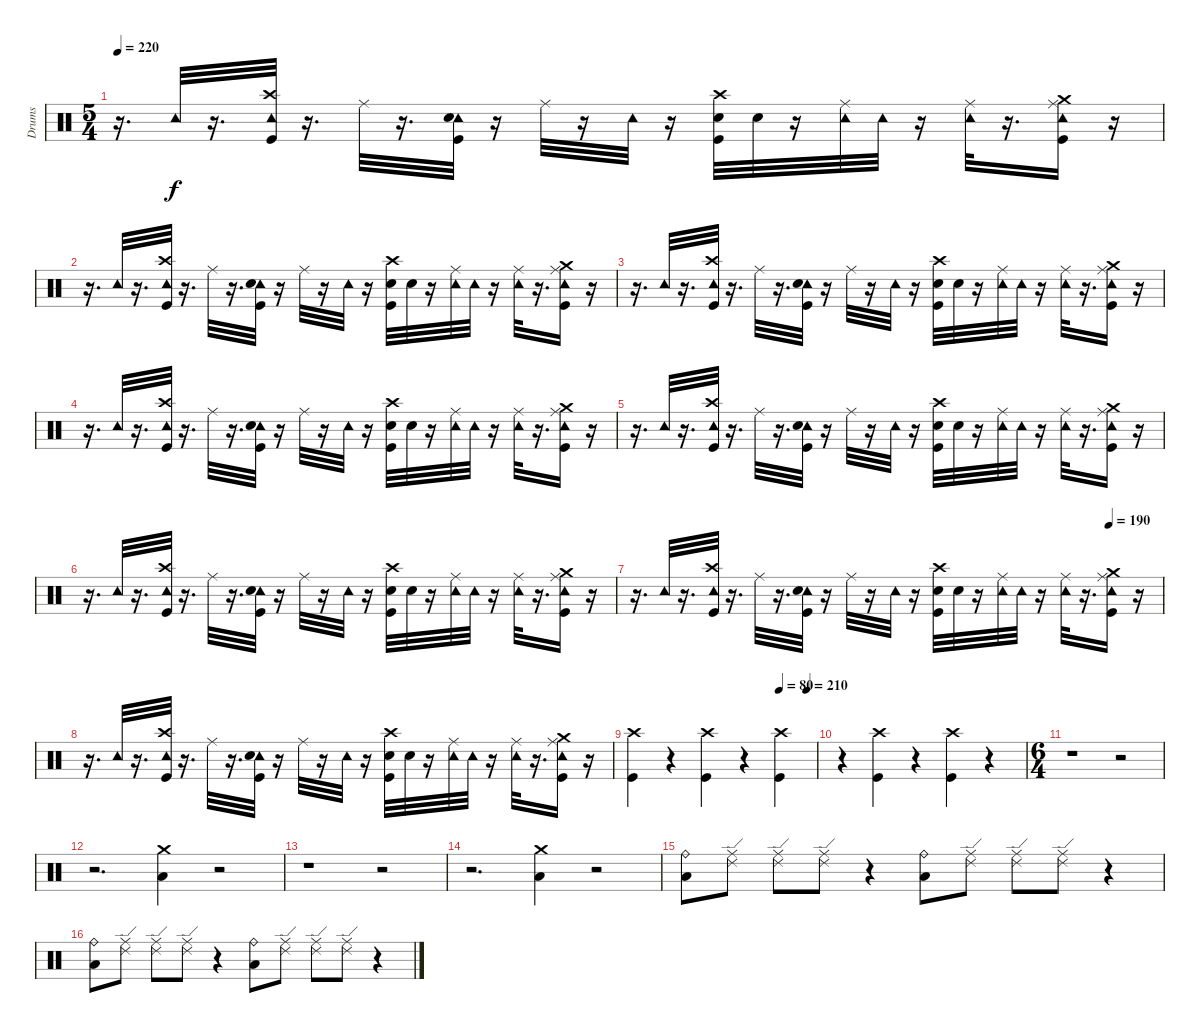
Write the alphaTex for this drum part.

\track ("Drums" "Drums") {instrument percussion}
\staff {score}
\articulation defaults
\ts (5 4)
\tempo 220
\clef neutral
\ks c
r.16{d dy f} "Tambourine (hit)".32 r.16{d} ("Tambourine (hit)" "Crash high (hit)" "Kick (hit)").32 r.16{d} "Ride (middle)".32 r.16{d} ("Tambourine (hit)" "Snare (hit) 2" "Kick (hit)").32 r.16 "Ride (middle)".32 r.16 "Tambourine (hit)".32 r.16 ("Crash high (hit)" "Kick (hit)" "Snare (hit) 2").32 "Snare (hit)".32 r.16 ("Tambourine (hit)" "Ride (middle)").32 "Tambourine (hit)".32 r.16 ("Ride (middle)" "Tambourine (hit)").32 r.16{d} ("Crash medium (hit)" "Tambourine (hit)" "Ride (middle)" "Kick (hit)").16 r.16 |
r.16{d} "Tambourine (hit)".32 r.16{d} ("Tambourine (hit)" "Crash high (hit)" "Kick (hit)").32 r.16{d} "Ride (middle)".32 r.16{d} ("Tambourine (hit)" "Snare (hit) 2" "Kick (hit)").32 r.16 "Ride (middle)".32 r.16 "Tambourine (hit)".32 r.16 ("Crash high (hit)" "Kick (hit)" "Snare (hit) 2").32 "Snare (hit)".32 r.16 ("Tambourine (hit)" "Ride (middle)").32 "Tambourine (hit)".32 r.16 ("Ride (middle)" "Tambourine (hit)").32 r.16{d} ("Crash medium (hit)" "Tambourine (hit)" "Ride (middle)" "Kick (hit)").16 r.16 |
r.16{d} "Tambourine (hit)".32 r.16{d} ("Tambourine (hit)" "Crash high (hit)" "Kick (hit)").32 r.16{d} "Ride (middle)".32 r.16{d} ("Tambourine (hit)" "Snare (hit) 2" "Kick (hit)").32 r.16 "Ride (middle)".32 r.16 "Tambourine (hit)".32 r.16 ("Crash high (hit)" "Kick (hit)" "Snare (hit) 2").32 "Snare (hit)".32 r.16 ("Tambourine (hit)" "Ride (middle)").32 "Tambourine (hit)".32 r.16 ("Ride (middle)" "Tambourine (hit)").32 r.16{d} ("Crash medium (hit)" "Tambourine (hit)" "Ride (middle)" "Kick (hit)").16 r.16 |
r.16{d} "Tambourine (hit)".32 r.16{d} ("Tambourine (hit)" "Crash high (hit)" "Kick (hit)").32 r.16{d} "Ride (middle)".32 r.16{d} ("Tambourine (hit)" "Snare (hit) 2" "Kick (hit)").32 r.16 "Ride (middle)".32 r.16 "Tambourine (hit)".32 r.16 ("Crash high (hit)" "Kick (hit)" "Snare (hit) 2").32 "Snare (hit)".32 r.16 ("Tambourine (hit)" "Ride (middle)").32 "Tambourine (hit)".32 r.16 ("Ride (middle)" "Tambourine (hit)").32 r.16{d} ("Crash medium (hit)" "Tambourine (hit)" "Ride (middle)" "Kick (hit)").16 r.16 |
r.16{d} "Tambourine (hit)".32 r.16{d} ("Tambourine (hit)" "Crash high (hit)" "Kick (hit)").32 r.16{d} "Ride (middle)".32 r.16{d} ("Tambourine (hit)" "Snare (hit) 2" "Kick (hit)").32 r.16 "Ride (middle)".32 r.16 "Tambourine (hit)".32 r.16 ("Crash high (hit)" "Kick (hit)" "Snare (hit) 2").32 "Snare (hit)".32 r.16 ("Tambourine (hit)" "Ride (middle)").32 "Tambourine (hit)".32 r.16 ("Ride (middle)" "Tambourine (hit)").32 r.16{d} ("Crash medium (hit)" "Tambourine (hit)" "Ride (middle)" "Kick (hit)").16 r.16 |
r.16{d} "Tambourine (hit)".32 r.16{d} ("Tambourine (hit)" "Crash high (hit)" "Kick (hit)").32 r.16{d} "Ride (middle)".32 r.16{d} ("Tambourine (hit)" "Snare (hit) 2" "Kick (hit)").32 r.16 "Ride (middle)".32 r.16 "Tambourine (hit)".32 r.16 ("Crash high (hit)" "Kick (hit)" "Snare (hit) 2").32 "Snare (hit)".32 r.16 ("Tambourine (hit)" "Ride (middle)").32 "Tambourine (hit)".32 r.16 ("Ride (middle)" "Tambourine (hit)").32 r.16{d} ("Crash medium (hit)" "Tambourine (hit)" "Ride (middle)" "Kick (hit)").16 r.16 |
\tempo (190 0.9)
r.16{d} "Tambourine (hit)".32 r.16{d} ("Tambourine (hit)" "Crash high (hit)" "Kick (hit)").32 r.16{d} "Ride (middle)".32 r.16{d} ("Tambourine (hit)" "Snare (hit) 2" "Kick (hit)").32 r.16 "Ride (middle)".32 r.16 "Tambourine (hit)".32 r.16 ("Crash high (hit)" "Kick (hit)" "Snare (hit) 2").32 "Snare (hit)".32 r.16 ("Tambourine (hit)" "Ride (middle)").32 "Tambourine (hit)".32 r.16 ("Ride (middle)" "Tambourine (hit)").32 r.16{d} ("Crash medium (hit)" "Tambourine (hit)" "Ride (middle)" "Kick (hit)").16 r.16 |
r.16{d} "Tambourine (hit)".32 r.16{d} ("Tambourine (hit)" "Crash high (hit)" "Kick (hit)").32 r.16{d} "Ride (middle)".32 r.16{d} ("Tambourine (hit)" "Snare (hit) 2" "Kick (hit)").32 r.16 "Ride (middle)".32 r.16 "Tambourine (hit)".32 r.16 ("Crash high (hit)" "Kick (hit)" "Snare (hit) 2").32 "Snare (hit)".32 r.16 ("Tambourine (hit)" "Ride (middle)").32 "Tambourine (hit)".32 r.16 ("Ride (middle)" "Tambourine (hit)").32 r.16{d} ("Crash medium (hit)" "Tambourine (hit)" "Ride (middle)" "Kick (hit)").16 r.16 |
\tempo (80 0.8)
\tempo (210 0.95)
("Kick (hit)" "Crash high (hit)").4 r.4 ("Crash high (hit)" "Kick (hit)").4 r.4 ("Crash high (hit)" "Kick (hit)").4 |
r.4 ("Crash high (hit)" "Kick (hit)").4 r.4 ("Kick (hit)" "Crash high (hit)").4 r.4 |
\ts (6 4)
r.1 r.2 |
r.2{d} ("Crash medium (hit)" "Low Floor Tom (hit)").4 r.2 |
r.1 r.2 |
r.2{d} ("Crash medium (hit)" "Low Floor Tom (hit)").4 r.2 |
("Low Floor Tom (hit)" "Ride (bell)").8 ("Ride (middle)" "Ride (edge) 2").8 ("Ride (middle)" "Ride (edge) 2").8 ("Ride (middle)" "Ride (edge) 2").8 r.4 ("Ride (bell)" "Low Floor Tom (hit)").8 ("Ride (middle)" "Ride (edge) 2").8 ("Ride (middle)" "Ride (edge) 2").8 ("Ride (middle)" "Ride (edge) 2").8 r.4 |
("Low Floor Tom (hit)" "Ride (bell)").8 ("Ride (middle)" "Ride (edge) 2").8 ("Ride (middle)" "Ride (edge) 2").8 ("Ride (middle)" "Ride (edge) 2").8 r.4 ("Ride (bell)" "Low Floor Tom (hit)").8 ("Ride (middle)" "Ride (edge) 2").8 ("Ride (middle)" "Ride (edge) 2").8 ("Ride (middle)" "Ride (edge) 2").8 r.4
